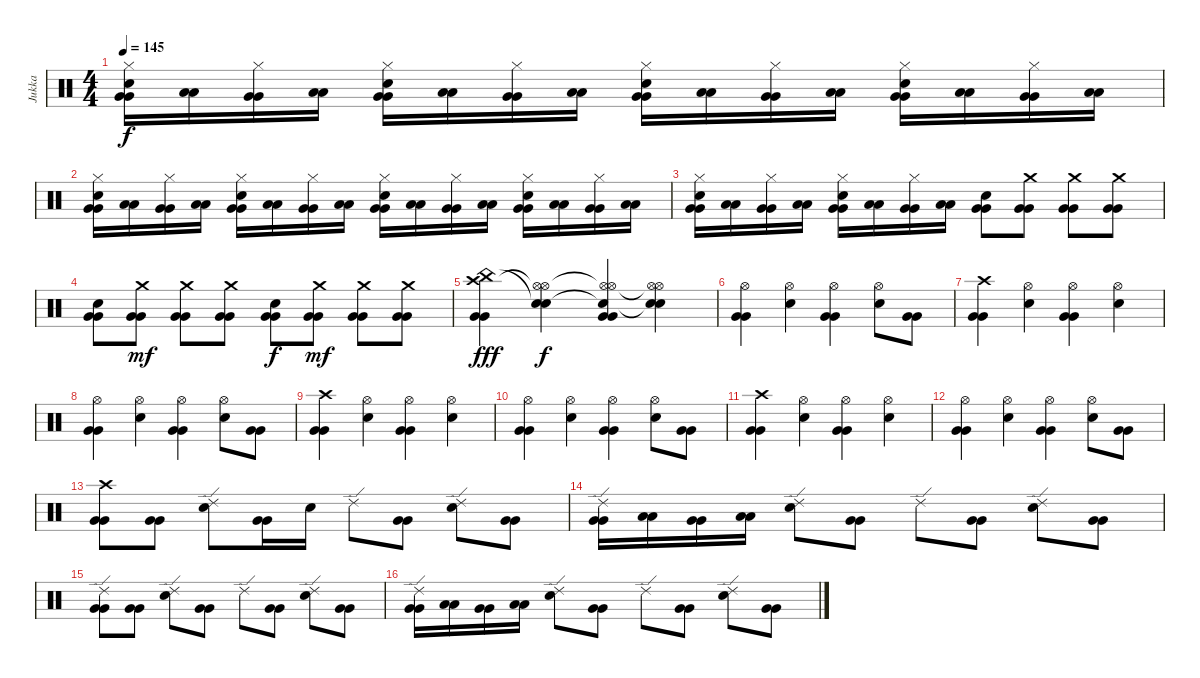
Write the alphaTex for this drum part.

\track ("Jukka" "Jukka") {instrument percussion}
\staff {score}
\articulation defaults
\ts (4 4)
\tempo 145
\clef neutral
\ks c
("Hi-Hat (closed)" "Electric Snare (hit)" "Very Low Tom (hit)" "Very Low Tom (hit)").16{dy f} ("Low Floor Tom (hit)" "Low Floor Tom (hit)").16 ("Hi-Hat (closed)" "Very Low Tom (hit)" "Very Low Tom (hit)").16 ("Low Floor Tom (hit)" "Low Floor Tom (hit)").16 ("Hi-Hat (closed)" "Electric Snare (hit)" "Very Low Tom (hit)" "Very Low Tom (hit)").16 ("Low Floor Tom (hit)" "Low Floor Tom (hit)").16 ("Hi-Hat (closed)" "Very Low Tom (hit)" "Very Low Tom (hit)").16 ("Low Floor Tom (hit)" "Low Floor Tom (hit)").16 ("Hi-Hat (closed)" "Electric Snare (hit)" "Very Low Tom (hit)" "Very Low Tom (hit)").16 ("Low Floor Tom (hit)" "Low Floor Tom (hit)").16 ("Hi-Hat (closed)" "Very Low Tom (hit)" "Very Low Tom (hit)").16 ("Low Floor Tom (hit)" "Low Floor Tom (hit)").16 ("Hi-Hat (closed)" "Electric Snare (hit)" "Very Low Tom (hit)" "Very Low Tom (hit)").16 ("Low Floor Tom (hit)" "Low Floor Tom (hit)").16 ("Hi-Hat (closed)" "Very Low Tom (hit)" "Very Low Tom (hit)").16 ("Low Floor Tom (hit)" "Low Floor Tom (hit)").16 |
("Hi-Hat (closed)" "Electric Snare (hit)" "Very Low Tom (hit)" "Very Low Tom (hit)").16 ("Low Floor Tom (hit)" "Low Floor Tom (hit)").16 ("Hi-Hat (closed)" "Very Low Tom (hit)" "Very Low Tom (hit)").16 ("Low Floor Tom (hit)" "Low Floor Tom (hit)").16 ("Hi-Hat (closed)" "Electric Snare (hit)" "Very Low Tom (hit)" "Very Low Tom (hit)").16 ("Low Floor Tom (hit)" "Low Floor Tom (hit)").16 ("Hi-Hat (closed)" "Very Low Tom (hit)" "Very Low Tom (hit)").16 ("Low Floor Tom (hit)" "Low Floor Tom (hit)").16 ("Hi-Hat (closed)" "Electric Snare (hit)" "Very Low Tom (hit)" "Very Low Tom (hit)").16 ("Low Floor Tom (hit)" "Low Floor Tom (hit)").16 ("Hi-Hat (closed)" "Very Low Tom (hit)" "Very Low Tom (hit)").16 ("Low Floor Tom (hit)" "Low Floor Tom (hit)").16 ("Hi-Hat (closed)" "Electric Snare (hit)" "Very Low Tom (hit)" "Very Low Tom (hit)").16 ("Low Floor Tom (hit)" "Low Floor Tom (hit)").16 ("Hi-Hat (closed)" "Very Low Tom (hit)" "Very Low Tom (hit)").16 ("Low Floor Tom (hit)" "Low Floor Tom (hit)").16 |
("Hi-Hat (closed)" "Electric Snare (hit)" "Very Low Tom (hit)" "Very Low Tom (hit)").16 ("Low Floor Tom (hit)" "Low Floor Tom (hit)").16 ("Hi-Hat (closed)" "Very Low Tom (hit)" "Very Low Tom (hit)").16 ("Low Floor Tom (hit)" "Low Floor Tom (hit)").16 ("Hi-Hat (closed)" "Electric Snare (hit)" "Very Low Tom (hit)" "Very Low Tom (hit)").16 ("Low Floor Tom (hit)" "Low Floor Tom (hit)").16 ("Hi-Hat (closed)" "Very Low Tom (hit)" "Very Low Tom (hit)").16 ("Low Floor Tom (hit)" "Low Floor Tom (hit)").16 ("Electric Snare (hit)" "Very Low Tom (hit)" "Very Low Tom (hit)").8 ("Crash medium (hit)" "Very Low Tom (hit)" "Very Low Tom (hit)").8 ("Crash medium (hit)" "Very Low Tom (hit)" "Very Low Tom (hit)").8 ("Crash medium (hit)" "Very Low Tom (hit)" "Very Low Tom (hit)").8 |
("Electric Snare (hit)" "Very Low Tom (hit)" "Very Low Tom (hit)").8 ("Crash medium (hit)" "Very Low Tom (hit)" "Very Low Tom (hit)").8{dy mf} ("Crash medium (hit)" "Very Low Tom (hit)" "Very Low Tom (hit)").8 ("Crash medium (hit)" "Very Low Tom (hit)" "Very Low Tom (hit)").8 ("Electric Snare (hit)" "Very Low Tom (hit)" "Very Low Tom (hit)").8{dy f} ("Crash medium (hit)" "Very Low Tom (hit)" "Very Low Tom (hit)").8{dy mf} ("Crash medium (hit)" "Very Low Tom (hit)" "Very Low Tom (hit)").8 ("Crash medium (hit)" "Very Low Tom (hit)" "Very Low Tom (hit)").8 |
("Crash high (hit)" "China (hit)" "Very Low Tom (hit)" "Very Low Tom (hit)").4{dy fff} ("Hi-Hat (open)"{t} "Snare (hit)"{t} "Electric Snare (hit)" "Hi-Hat (open)").4{dy f} ("Hi-Hat (open)"{t} "Snare (hit)"{t} "Hi-Hat (open)" "Very Low Tom (hit)" "Very Low Tom (hit)").4 ("Hi-Hat (open)"{t} "Snare (hit)"{t} "Electric Snare (hit)" "Hi-Hat (open)").4 |
("Hi-Hat (open)" "Very Low Tom (hit)" "Very Low Tom (hit)").4 ("Hi-Hat (open)" "Electric Snare (hit)").4 ("Hi-Hat (open)" "Very Low Tom (hit)" "Very Low Tom (hit)").4 ("Hi-Hat (open)" "Electric Snare (hit)").8 ("Very Low Tom (hit)" "Very Low Tom (hit)").8 |
("Crash high (hit)" "Very Low Tom (hit)" "Very Low Tom (hit)").4 ("Hi-Hat (open)" "Electric Snare (hit)").4 ("Hi-Hat (open)" "Very Low Tom (hit)" "Very Low Tom (hit)").4 ("Hi-Hat (open)" "Electric Snare (hit)").4 |
("Hi-Hat (open)" "Very Low Tom (hit)" "Very Low Tom (hit)").4 ("Hi-Hat (open)" "Electric Snare (hit)").4 ("Hi-Hat (open)" "Very Low Tom (hit)" "Very Low Tom (hit)").4 ("Hi-Hat (open)" "Electric Snare (hit)").8 ("Very Low Tom (hit)" "Very Low Tom (hit)").8 |
("Crash high (hit)" "Very Low Tom (hit)" "Very Low Tom (hit)").4 ("Hi-Hat (open)" "Electric Snare (hit)").4 ("Hi-Hat (open)" "Very Low Tom (hit)" "Very Low Tom (hit)").4 ("Hi-Hat (open)" "Electric Snare (hit)").4 |
("Hi-Hat (open)" "Very Low Tom (hit)" "Very Low Tom (hit)").4 ("Hi-Hat (open)" "Electric Snare (hit)").4 ("Hi-Hat (open)" "Very Low Tom (hit)" "Very Low Tom (hit)").4 ("Hi-Hat (open)" "Electric Snare (hit)").8 ("Very Low Tom (hit)" "Very Low Tom (hit)").8 |
("Crash high (hit)" "Very Low Tom (hit)" "Very Low Tom (hit)").4 ("Hi-Hat (open)" "Electric Snare (hit)").4 ("Hi-Hat (open)" "Very Low Tom (hit)" "Very Low Tom (hit)").4 ("Hi-Hat (open)" "Electric Snare (hit)").4 |
("Hi-Hat (open)" "Very Low Tom (hit)" "Very Low Tom (hit)").4 ("Hi-Hat (open)" "Electric Snare (hit)").4 ("Hi-Hat (open)" "Very Low Tom (hit)" "Very Low Tom (hit)").4 ("Hi-Hat (open)" "Electric Snare (hit)").8 ("Very Low Tom (hit)" "Very Low Tom (hit)").8 |
("Crash high (hit)" "Very Low Tom (hit)" "Very Low Tom (hit)").8 ("Very Low Tom (hit)" "Very Low Tom (hit)").8 ("Ride (edge) 2" "Electric Snare (hit)").8 ("Very Low Tom (hit)" "Very Low Tom (hit)").16 "Electric Snare (hit)".16 "Ride (edge) 2".8 ("Very Low Tom (hit)" "Very Low Tom (hit)").8 ("Ride (edge) 2" "Electric Snare (hit)").8 ("Very Low Tom (hit)" "Very Low Tom (hit)").8 |
("Ride (edge) 2" "Very Low Tom (hit)" "Very Low Tom (hit)").16 ("Low Floor Tom (hit)" "Low Floor Tom (hit)").16 ("Very Low Tom (hit)" "Very Low Tom (hit)").16 ("Low Floor Tom (hit)" "Low Floor Tom (hit)").16 ("Ride (edge) 2" "Electric Snare (hit)").8 ("Very Low Tom (hit)" "Very Low Tom (hit)").8 "Ride (edge) 2".8 ("Very Low Tom (hit)" "Very Low Tom (hit)").8 ("Ride (edge) 2" "Electric Snare (hit)").8 ("Very Low Tom (hit)" "Very Low Tom (hit)").8 |
("Ride (edge) 2" "Very Low Tom (hit)" "Very Low Tom (hit)").8 ("Very Low Tom (hit)" "Very Low Tom (hit)").8 ("Ride (edge) 2" "Electric Snare (hit)").8 ("Very Low Tom (hit)" "Very Low Tom (hit)").8 "Ride (edge) 2".8 ("Very Low Tom (hit)" "Very Low Tom (hit)").8 ("Ride (edge) 2" "Electric Snare (hit)").8 ("Very Low Tom (hit)" "Very Low Tom (hit)").8 |
("Ride (edge) 2" "Very Low Tom (hit)" "Very Low Tom (hit)").16 ("Low Floor Tom (hit)" "Low Floor Tom (hit)").16 ("Very Low Tom (hit)" "Very Low Tom (hit)").16 ("Low Floor Tom (hit)" "Low Floor Tom (hit)").16 ("Ride (edge) 2" "Electric Snare (hit)").8 ("Very Low Tom (hit)" "Very Low Tom (hit)").8 "Ride (edge) 2".8 ("Very Low Tom (hit)" "Very Low Tom (hit)").8 ("Ride (edge) 2" "Electric Snare (hit)").8 ("Very Low Tom (hit)" "Very Low Tom (hit)").8
